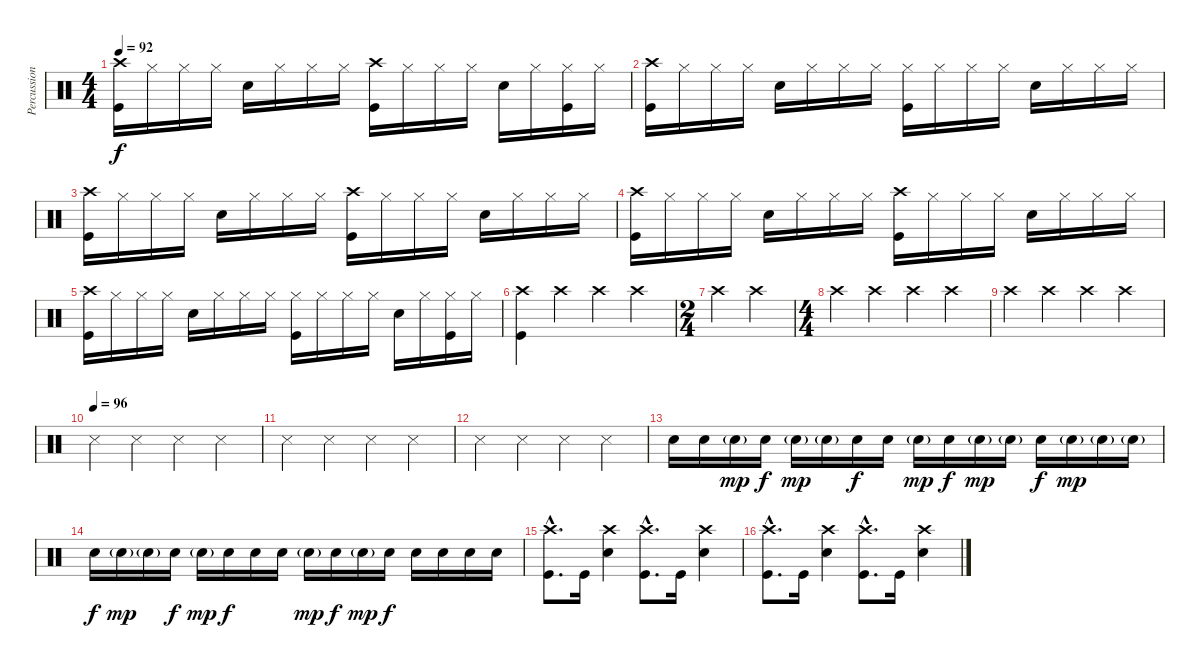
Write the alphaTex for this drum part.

\track ("Percussion" "Percussion") {instrument percussion}
\staff {score}
\articulation defaults
\ts (4 4)
\tempo 92
\clef neutral
\ks c
("Crash high (hit)" "Kick (hit)").16{dy f} "Hi-Hat (closed)".16 "Hi-Hat (closed)".16 "Hi-Hat (closed)".16 "Snare (hit) 2".16 "Hi-Hat (closed)".16 "Hi-Hat (closed)".16 "Hi-Hat (closed)".16 ("Crash high (hit)" "Kick (hit)").16 "Hi-Hat (closed)".16 "Hi-Hat (closed)".16 "Hi-Hat (closed)".16 "Snare (hit) 2".16 "Hi-Hat (closed)".16 ("Hi-Hat (closed)" "Kick (hit)").16 "Hi-Hat (closed)".16 |
("Crash high (hit)" "Kick (hit)").16 "Hi-Hat (closed)".16 "Hi-Hat (closed)".16 "Hi-Hat (closed)".16 "Snare (hit) 2".16 "Hi-Hat (closed)".16 "Hi-Hat (closed)".16 "Hi-Hat (closed)".16 ("Hi-Hat (closed)" "Kick (hit)").16 "Hi-Hat (closed)".16 "Hi-Hat (closed)".16 "Hi-Hat (closed)".16 "Snare (hit) 2".16 "Hi-Hat (closed)".16 "Hi-Hat (closed)".16 "Hi-Hat (closed)".16 |
("Crash high (hit)" "Kick (hit)").16 "Hi-Hat (closed)".16 "Hi-Hat (closed)".16 "Hi-Hat (closed)".16 "Snare (hit) 2".16 "Hi-Hat (closed)".16 "Hi-Hat (closed)".16 "Hi-Hat (closed)".16 ("Crash high (hit)" "Kick (hit)").16 "Hi-Hat (closed)".16 "Hi-Hat (closed)".16 "Hi-Hat (closed)".16 "Snare (hit) 2".16 "Hi-Hat (closed)".16 "Hi-Hat (closed)".16 "Hi-Hat (closed)".16 |
("Crash high (hit)" "Kick (hit)").16 "Hi-Hat (closed)".16 "Hi-Hat (closed)".16 "Hi-Hat (closed)".16 "Snare (hit) 2".16 "Hi-Hat (closed)".16 "Hi-Hat (closed)".16 "Hi-Hat (closed)".16 ("Crash high (hit)" "Kick (hit)").16 "Hi-Hat (closed)".16 "Hi-Hat (closed)".16 "Hi-Hat (closed)".16 "Snare (hit) 2".16 "Hi-Hat (closed)".16 "Hi-Hat (closed)".16 "Hi-Hat (closed)".16 |
("Crash high (hit)" "Kick (hit)").16 "Hi-Hat (closed)".16 "Hi-Hat (closed)".16 "Hi-Hat (closed)".16 "Snare (hit) 2".16 "Hi-Hat (closed)".16 "Hi-Hat (closed)".16 "Hi-Hat (closed)".16 ("Hi-Hat (closed)" "Kick (hit)").16 "Hi-Hat (closed)".16 "Hi-Hat (closed)".16 "Hi-Hat (closed)".16 "Snare (hit) 2".16 "Hi-Hat (closed)".16 ("Hi-Hat (closed)" "Kick (hit)").16 "Hi-Hat (closed)".16 |
("Crash high (hit)" "Kick (hit)").4 "Crash high (hit)".4 "Crash high (hit)".4 "Crash high (hit)".4 |
\ts (2 4)
"Crash high (hit)".4 "Crash high (hit)".4 |
\ts (4 4)
"Crash high (hit)".4 "Crash high (hit)".4 "Crash high (hit)".4 "Crash high (hit)".4 |
"Crash high (hit)".4 "Crash high (hit)".4 "Crash high (hit)".4 "Crash high (hit)".4 |
\tempo (96)
"Metronome (hit)".4 "Metronome (hit)".4 "Metronome (hit)".4 "Metronome (hit)".4 |
"Metronome (hit)".4 "Metronome (hit)".4 "Metronome (hit)".4 "Metronome (hit)".4 |
"Metronome (hit)".4 "Metronome (hit)".4 "Metronome (hit)".4 "Metronome (hit)".4 |
"Snare (hit) 2".16 "Snare (hit) 2".16 "Snare (hit) 2"{g}.16{dy mp} "Snare (hit) 2".16{dy f} "Snare (hit) 2"{g}.16{dy mp} "Snare (hit) 2"{g}.16 "Snare (hit) 2".16{dy f} "Snare (hit) 2".16 "Snare (hit) 2"{g}.16{dy mp} "Snare (hit) 2".16{dy f} "Snare (hit) 2"{g}.16{dy mp} "Snare (hit) 2"{g}.16 "Snare (hit) 2".16{dy f} "Snare (hit) 2"{g}.16{dy mp} "Snare (hit) 2"{g}.16 "Snare (hit) 2"{g}.16 |
"Snare (hit) 2".16{dy f} "Snare (hit) 2"{g}.16{dy mp} "Snare (hit) 2"{g}.16 "Snare (hit) 2".16{dy f} "Snare (hit) 2"{g}.16{dy mp} "Snare (hit) 2".16{dy f} "Snare (hit) 2".16 "Snare (hit) 2".16 "Snare (hit) 2"{g}.16{dy mp} "Snare (hit) 2".16{dy f} "Snare (hit) 2"{g}.16{dy mp} "Snare (hit) 2".16{dy f} "Snare (hit) 2".16 "Snare (hit) 2".16 "Snare (hit) 2".16 "Snare (hit) 2".16 |
("Crash high (hit)"{hac} "Kick (hit)"{hac}).8{d} "Kick (hit)".16 ("Crash high (hit)" "Snare (hit) 2").4 ("Crash high (hit)"{hac} "Kick (hit)"{hac}).8{d} "Kick (hit)".16 ("Crash high (hit)" "Snare (hit) 2").4 |
("Crash high (hit)"{hac} "Kick (hit)"{hac}).8{d} "Kick (hit)".16 ("Crash high (hit)" "Snare (hit) 2").4 ("Crash high (hit)"{hac} "Kick (hit)"{hac}).8{d} "Kick (hit)".16 ("Crash high (hit)" "Snare (hit) 2").4
